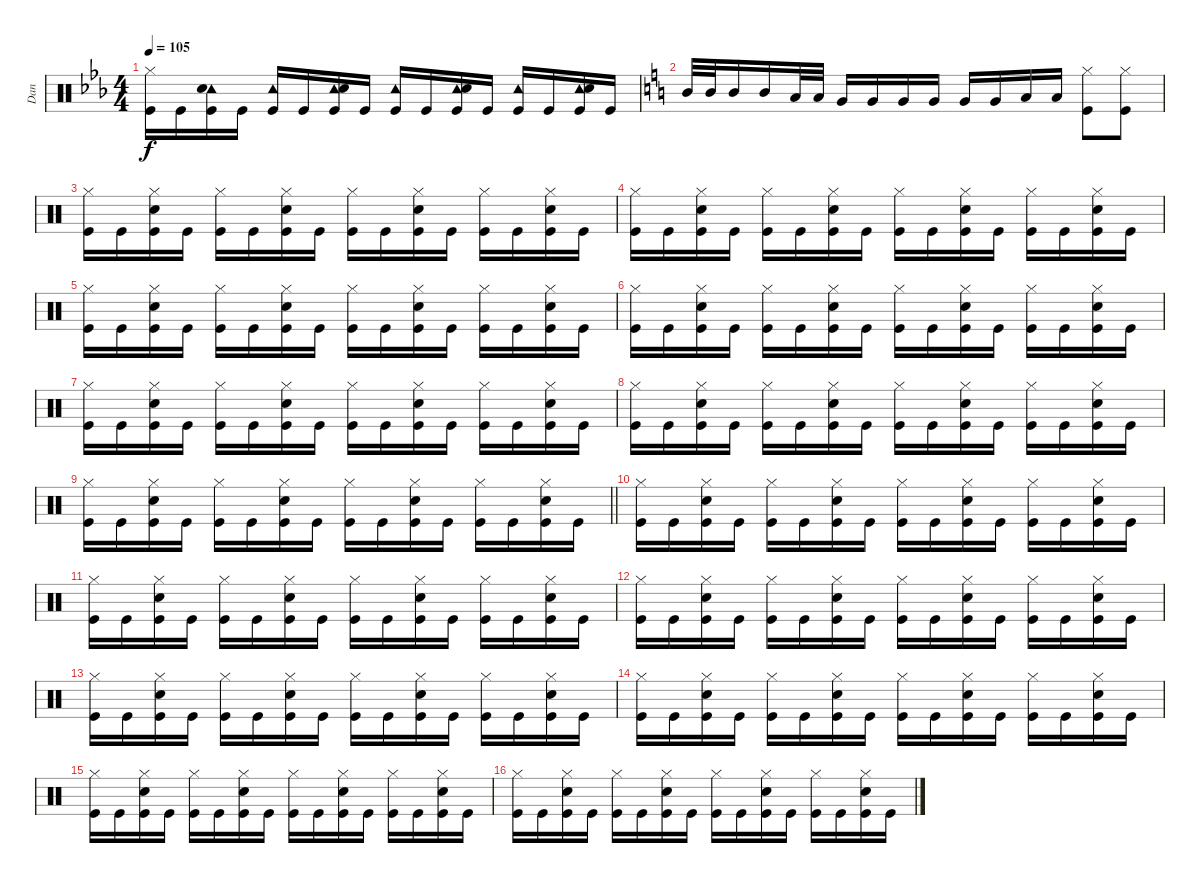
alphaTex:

\track ("Dan" "Dan") {instrument percussion}
\staff {score}
\articulation defaults
\ts (4 4)
\tempo 105
\clef neutral
\ks eb
("Hi-Hat (closed)" "Kick (hit)").16{dy f} "Kick (hit)".16 ("Tambourine (hit)" "Snare (hit) 2" "Kick (hit)").16 "Kick (hit)".16 ("Tambourine (hit)" "Kick (hit)").16 "Kick (hit)".16 ("Tambourine (hit)" "Snare (hit) 2" "Kick (hit)").16 "Kick (hit)".16 ("Tambourine (hit)" "Kick (hit)").16 "Kick (hit)".16 ("Tambourine (hit)" "Snare (hit) 2" "Kick (hit)").16 "Kick (hit)".16 ("Tambourine (hit)" "Kick (hit)").16 "Kick (hit)".16 ("Tambourine (hit)" "Snare (hit) 2" "Kick (hit)").16 "Kick (hit)".16 |
\ks c "Mid Tom (hit)".32 "Mid Tom (hit)".32 "Mid Tom (hit)".16 "Mid Tom (hit)".16 "Low Tom (hit)".32 "Low Tom (hit)".32 "Very Low Tom (hit)".16 "Very Low Tom (hit)".16 "Very Low Tom (hit)".16 "Very Low Tom (hit)".16 "Very Low Tom (hit)".16 "Very Low Tom (hit)".16 "Low Floor Tom (hit)".16 "Low Floor Tom (hit)".16
("Hi-Hat (closed)" "Kick (hit)").8 ("Hi-Hat (closed)" "Kick (hit)").8 |
("Hi-Hat (closed)" "Kick (hit)").16 "Kick (hit)".16 ("Hi-Hat (closed)" "Snare (hit) 2" "Kick (hit)").16 "Kick (hit)".16 ("Hi-Hat (closed)" "Kick (hit)").16 "Kick (hit)".16 ("Hi-Hat (closed)" "Snare (hit) 2" "Kick (hit)").16 "Kick (hit)".16 ("Hi-Hat (closed)" "Kick (hit)").16 "Kick (hit)".16 ("Hi-Hat (closed)" "Snare (hit) 2" "Kick (hit)").16 "Kick (hit)".16 ("Hi-Hat (closed)" "Kick (hit)").16 "Kick (hit)".16 ("Hi-Hat (closed)" "Snare (hit) 2" "Kick (hit)").16 "Kick (hit)".16 |
("Hi-Hat (closed)" "Kick (hit)").16 "Kick (hit)".16 ("Hi-Hat (closed)" "Snare (hit) 2" "Kick (hit)").16 "Kick (hit)".16 ("Hi-Hat (closed)" "Kick (hit)").16 "Kick (hit)".16 ("Hi-Hat (closed)" "Snare (hit) 2" "Kick (hit)").16 "Kick (hit)".16 ("Hi-Hat (closed)" "Kick (hit)").16 "Kick (hit)".16 ("Hi-Hat (closed)" "Snare (hit) 2" "Kick (hit)").16 "Kick (hit)".16 ("Hi-Hat (closed)" "Kick (hit)").16 "Kick (hit)".16 ("Hi-Hat (closed)" "Snare (hit) 2" "Kick (hit)").16 "Kick (hit)".16 |
("Hi-Hat (closed)" "Kick (hit)").16 "Kick (hit)".16 ("Hi-Hat (closed)" "Snare (hit) 2" "Kick (hit)").16 "Kick (hit)".16 ("Hi-Hat (closed)" "Kick (hit)").16 "Kick (hit)".16 ("Hi-Hat (closed)" "Snare (hit) 2" "Kick (hit)").16 "Kick (hit)".16 ("Hi-Hat (closed)" "Kick (hit)").16 "Kick (hit)".16 ("Hi-Hat (closed)" "Snare (hit) 2" "Kick (hit)").16 "Kick (hit)".16 ("Hi-Hat (closed)" "Kick (hit)").16 "Kick (hit)".16 ("Hi-Hat (closed)" "Snare (hit) 2" "Kick (hit)").16 "Kick (hit)".16 |
("Hi-Hat (closed)" "Kick (hit)").16 "Kick (hit)".16 ("Hi-Hat (closed)" "Snare (hit) 2" "Kick (hit)").16 "Kick (hit)".16 ("Hi-Hat (closed)" "Kick (hit)").16 "Kick (hit)".16 ("Hi-Hat (closed)" "Snare (hit) 2" "Kick (hit)").16 "Kick (hit)".16 ("Hi-Hat (closed)" "Kick (hit)").16 "Kick (hit)".16 ("Hi-Hat (closed)" "Snare (hit) 2" "Kick (hit)").16 "Kick (hit)".16 ("Hi-Hat (closed)" "Kick (hit)").16 "Kick (hit)".16 ("Hi-Hat (closed)" "Snare (hit) 2" "Kick (hit)").16 "Kick (hit)".16 |
("Hi-Hat (closed)" "Kick (hit)").16 "Kick (hit)".16 ("Hi-Hat (closed)" "Snare (hit) 2" "Kick (hit)").16 "Kick (hit)".16 ("Hi-Hat (closed)" "Kick (hit)").16 "Kick (hit)".16 ("Hi-Hat (closed)" "Snare (hit) 2" "Kick (hit)").16 "Kick (hit)".16 ("Hi-Hat (closed)" "Kick (hit)").16 "Kick (hit)".16 ("Hi-Hat (closed)" "Snare (hit) 2" "Kick (hit)").16 "Kick (hit)".16 ("Hi-Hat (closed)" "Kick (hit)").16 "Kick (hit)".16 ("Hi-Hat (closed)" "Snare (hit) 2" "Kick (hit)").16 "Kick (hit)".16 |
("Hi-Hat (closed)" "Kick (hit)").16 "Kick (hit)".16 ("Hi-Hat (closed)" "Snare (hit) 2" "Kick (hit)").16 "Kick (hit)".16 ("Hi-Hat (closed)" "Kick (hit)").16 "Kick (hit)".16 ("Hi-Hat (closed)" "Snare (hit) 2" "Kick (hit)").16 "Kick (hit)".16 ("Hi-Hat (closed)" "Kick (hit)").16 "Kick (hit)".16 ("Hi-Hat (closed)" "Snare (hit) 2" "Kick (hit)").16 "Kick (hit)".16 ("Hi-Hat (closed)" "Kick (hit)").16 "Kick (hit)".16 ("Hi-Hat (closed)" "Snare (hit) 2" "Kick (hit)").16 "Kick (hit)".16 |
\barLineRight lightlight
("Hi-Hat (closed)" "Kick (hit)").16 "Kick (hit)".16 ("Hi-Hat (closed)" "Snare (hit) 2" "Kick (hit)").16 "Kick (hit)".16 ("Hi-Hat (closed)" "Kick (hit)").16 "Kick (hit)".16 ("Hi-Hat (closed)" "Snare (hit) 2" "Kick (hit)").16 "Kick (hit)".16 ("Hi-Hat (closed)" "Kick (hit)").16 "Kick (hit)".16 ("Hi-Hat (closed)" "Snare (hit) 2" "Kick (hit)").16 "Kick (hit)".16 ("Hi-Hat (closed)" "Kick (hit)").16 "Kick (hit)".16 ("Hi-Hat (closed)" "Snare (hit) 2" "Kick (hit)").16 "Kick (hit)".16 |
("Hi-Hat (closed)" "Kick (hit)").16 "Kick (hit)".16 ("Hi-Hat (closed)" "Snare (hit) 2" "Kick (hit)").16 "Kick (hit)".16 ("Hi-Hat (closed)" "Kick (hit)").16 "Kick (hit)".16 ("Hi-Hat (closed)" "Snare (hit) 2" "Kick (hit)").16 "Kick (hit)".16 ("Hi-Hat (closed)" "Kick (hit)").16 "Kick (hit)".16 ("Hi-Hat (closed)" "Snare (hit) 2" "Kick (hit)").16 "Kick (hit)".16 ("Hi-Hat (closed)" "Kick (hit)").16 "Kick (hit)".16 ("Hi-Hat (closed)" "Snare (hit) 2" "Kick (hit)").16 "Kick (hit)".16 |
("Hi-Hat (closed)" "Kick (hit)").16 "Kick (hit)".16 ("Hi-Hat (closed)" "Snare (hit) 2" "Kick (hit)").16 "Kick (hit)".16 ("Hi-Hat (closed)" "Kick (hit)").16 "Kick (hit)".16 ("Hi-Hat (closed)" "Snare (hit) 2" "Kick (hit)").16 "Kick (hit)".16 ("Hi-Hat (closed)" "Kick (hit)").16 "Kick (hit)".16 ("Hi-Hat (closed)" "Snare (hit) 2" "Kick (hit)").16 "Kick (hit)".16 ("Hi-Hat (closed)" "Kick (hit)").16 "Kick (hit)".16 ("Hi-Hat (closed)" "Snare (hit) 2" "Kick (hit)").16 "Kick (hit)".16 |
("Hi-Hat (closed)" "Kick (hit)").16 "Kick (hit)".16 ("Hi-Hat (closed)" "Snare (hit) 2" "Kick (hit)").16 "Kick (hit)".16 ("Hi-Hat (closed)" "Kick (hit)").16 "Kick (hit)".16 ("Hi-Hat (closed)" "Snare (hit) 2" "Kick (hit)").16 "Kick (hit)".16 ("Hi-Hat (closed)" "Kick (hit)").16 "Kick (hit)".16 ("Hi-Hat (closed)" "Snare (hit) 2" "Kick (hit)").16 "Kick (hit)".16 ("Hi-Hat (closed)" "Kick (hit)").16 "Kick (hit)".16 ("Hi-Hat (closed)" "Snare (hit) 2" "Kick (hit)").16 "Kick (hit)".16 |
("Hi-Hat (closed)" "Kick (hit)").16 "Kick (hit)".16 ("Hi-Hat (closed)" "Snare (hit) 2" "Kick (hit)").16 "Kick (hit)".16 ("Hi-Hat (closed)" "Kick (hit)").16 "Kick (hit)".16 ("Hi-Hat (closed)" "Snare (hit) 2" "Kick (hit)").16 "Kick (hit)".16 ("Hi-Hat (closed)" "Kick (hit)").16 "Kick (hit)".16 ("Hi-Hat (closed)" "Snare (hit) 2" "Kick (hit)").16 "Kick (hit)".16 ("Hi-Hat (closed)" "Kick (hit)").16 "Kick (hit)".16 ("Hi-Hat (closed)" "Snare (hit) 2" "Kick (hit)").16 "Kick (hit)".16 |
("Hi-Hat (closed)" "Kick (hit)").16 "Kick (hit)".16 ("Hi-Hat (closed)" "Snare (hit) 2" "Kick (hit)").16 "Kick (hit)".16 ("Hi-Hat (closed)" "Kick (hit)").16 "Kick (hit)".16 ("Hi-Hat (closed)" "Snare (hit) 2" "Kick (hit)").16 "Kick (hit)".16 ("Hi-Hat (closed)" "Kick (hit)").16 "Kick (hit)".16 ("Hi-Hat (closed)" "Snare (hit) 2" "Kick (hit)").16 "Kick (hit)".16 ("Hi-Hat (closed)" "Kick (hit)").16 "Kick (hit)".16 ("Hi-Hat (closed)" "Snare (hit) 2" "Kick (hit)").16 "Kick (hit)".16 |
("Hi-Hat (closed)" "Kick (hit)").16 "Kick (hit)".16 ("Hi-Hat (closed)" "Snare (hit) 2" "Kick (hit)").16 "Kick (hit)".16 ("Hi-Hat (closed)" "Kick (hit)").16 "Kick (hit)".16 ("Hi-Hat (closed)" "Snare (hit) 2" "Kick (hit)").16 "Kick (hit)".16 ("Hi-Hat (closed)" "Kick (hit)").16 "Kick (hit)".16 ("Hi-Hat (closed)" "Snare (hit) 2" "Kick (hit)").16 "Kick (hit)".16 ("Hi-Hat (closed)" "Kick (hit)").16 "Kick (hit)".16 ("Hi-Hat (closed)" "Snare (hit) 2" "Kick (hit)").16 "Kick (hit)".16 |
("Hi-Hat (closed)" "Kick (hit)").16 "Kick (hit)".16 ("Hi-Hat (closed)" "Snare (hit) 2" "Kick (hit)").16 "Kick (hit)".16 ("Hi-Hat (closed)" "Kick (hit)").16 "Kick (hit)".16 ("Hi-Hat (closed)" "Snare (hit) 2" "Kick (hit)").16 "Kick (hit)".16 ("Hi-Hat (closed)" "Kick (hit)").16 "Kick (hit)".16 ("Hi-Hat (closed)" "Snare (hit) 2" "Kick (hit)").16 "Kick (hit)".16 ("Hi-Hat (closed)" "Kick (hit)").16 "Kick (hit)".16 ("Hi-Hat (closed)" "Snare (hit) 2" "Kick (hit)").16 "Kick (hit)".16
